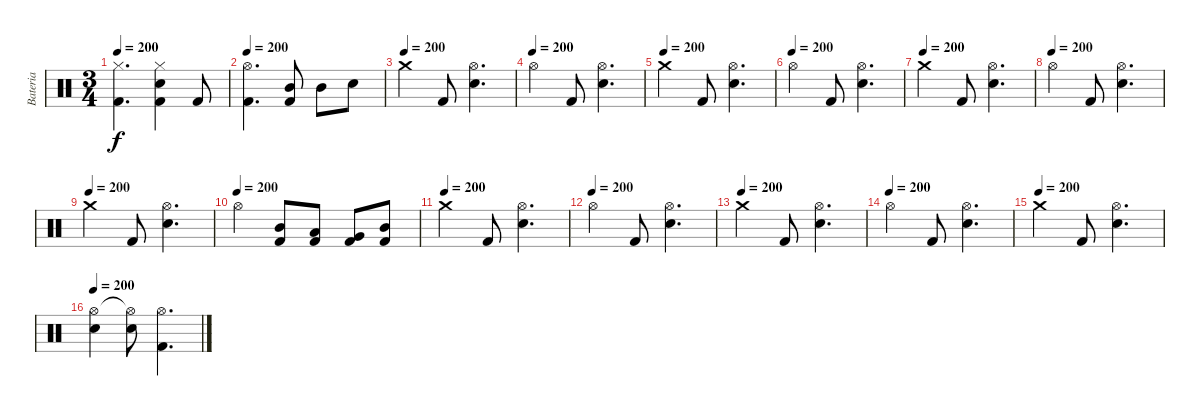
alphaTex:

\track ("Bateria" "Bateria") {instrument percussion}
\staff {score}
\articulation defaults
\ts (3 4)
\tempo 200
\clef neutral
\ks c
("Hi-Hat (closed)" "Kick (hit) 2").4{d dy f} ("Electric Snare (hit)" "Hi-Hat (closed)" "Kick (hit) 2").4 "Kick (hit) 2".8 |
\tempo 200
("Hi-Hat (open)" "Kick (hit) 2").4{d} ("Mid Tom (hit)" "Kick (hit) 2").8 "Mid Tom (hit)".8 "Electric Snare (hit)".8 |
\tempo (200)
"Crash medium (hit)".4 "Kick (hit) 2".8 ("Hi-Hat (open)" "Electric Snare (hit)").4{d} |
\tempo (200)
"Hi-Hat (open)".4 "Kick (hit) 2".8 ("Hi-Hat (open)" "Electric Snare (hit)").4{d} |
\tempo (200)
"Crash medium (hit)".4 "Kick (hit) 2".8 ("Hi-Hat (open)" "Electric Snare (hit)").4{d} |
\tempo (200)
"Hi-Hat (open)".4 "Kick (hit) 2".8 ("Hi-Hat (open)" "Electric Snare (hit)").4{d} |
\tempo (200)
"Crash medium (hit)".4 "Kick (hit) 2".8 ("Hi-Hat (open)" "Electric Snare (hit)").4{d} |
\tempo (200)
"Hi-Hat (open)".4 "Kick (hit) 2".8 ("Hi-Hat (open)" "Electric Snare (hit)").4{d} |
\tempo (200)
"Crash medium (hit)".4 "Kick (hit) 2".8 ("Hi-Hat (open)" "Electric Snare (hit)").4{d} |
\tempo (200)
"Hi-Hat (open)".4 ("Mid Tom (hit)" "Kick (hit) 2").8 ("Low Tom (hit)" "Kick (hit) 2").8 ("Very Low Tom (hit)" "Kick (hit) 2").8 ("Mid Tom (hit)" "Kick (hit) 2").8 |
\tempo (200)
"Crash medium (hit)".4 "Kick (hit) 2".8 ("Hi-Hat (open)" "Electric Snare (hit)").4{d} |
\tempo (200)
"Hi-Hat (open)".4 "Kick (hit) 2".8 ("Hi-Hat (open)" "Electric Snare (hit)").4{d} |
\tempo (200)
"Crash medium (hit)".4 "Kick (hit) 2".8 ("Hi-Hat (open)" "Electric Snare (hit)").4{d} |
\tempo (200)
"Hi-Hat (open)".4 "Kick (hit) 2".8 ("Hi-Hat (open)" "Electric Snare (hit)").4{d} |
\tempo (200)
"Crash medium (hit)".4 "Kick (hit) 2".8 ("Hi-Hat (open)" "Electric Snare (hit)").4{d} |
\tempo 200
("Hi-Hat (open)" "Electric Snare (hit)").4 ("Hi-Hat (open)"{t} "Electric Snare (hit)").8 ("Hi-Hat (open)" "Kick (hit) 2").4{d}
